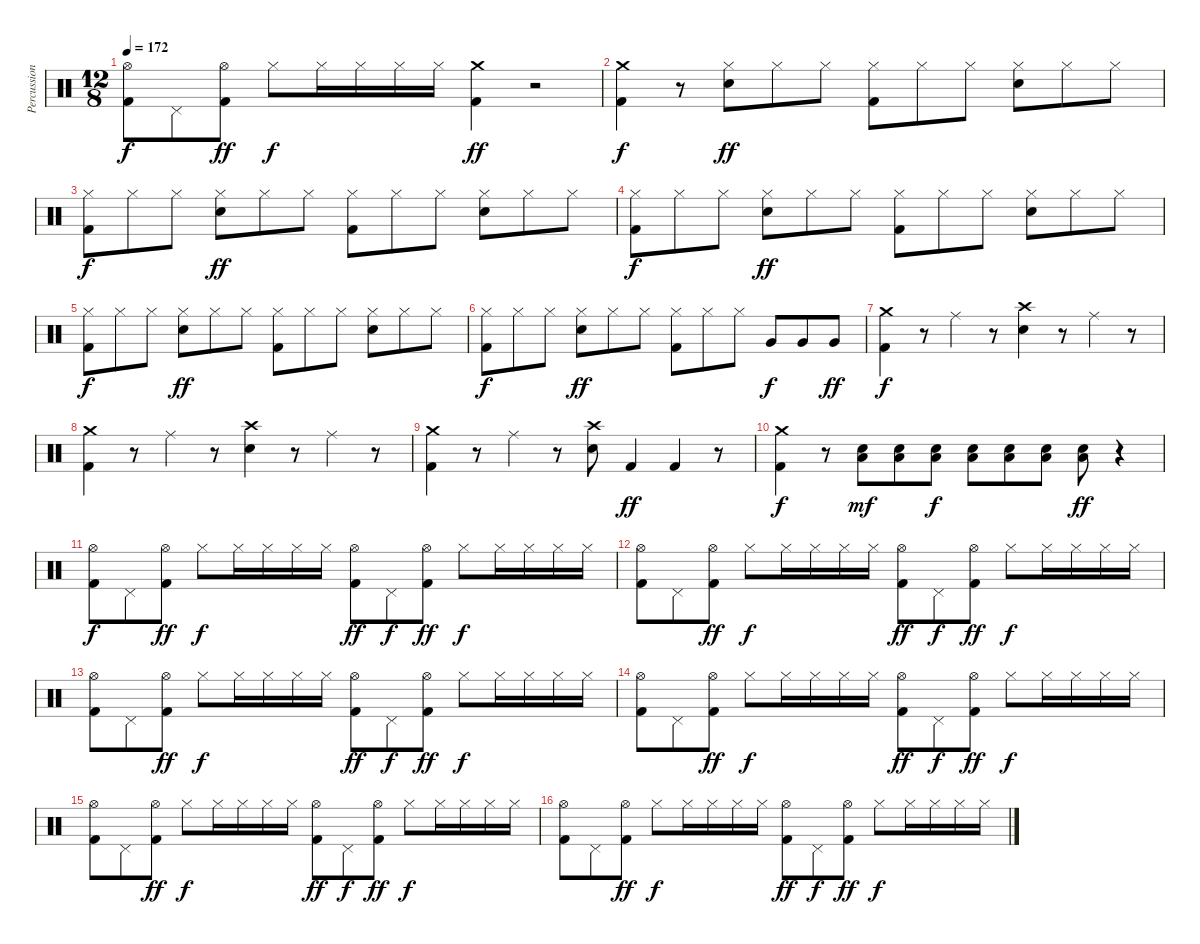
\track ("Percussion" "Percussion") {instrument percussion}
\staff {score}
\articulation defaults
\ts (12 8)
\tempo 172
\clef neutral
\ks c
("Kick (hit) 2" "Hi-Hat (open)").8{dy f} "Pedal Hi-Hat (hit)".8 ("Kick (hit) 2" "Hi-Hat (open)").8{dy ff} "Hi-Hat (closed)".8{dy f} "Hi-Hat (closed)".16 "Hi-Hat (closed)".16 "Hi-Hat (closed)".16 "Hi-Hat (closed)".16 ("Kick (hit) 2" "Crash medium (hit)").4{dy ff} r.2 |
("Kick (hit) 2" "Crash medium (hit)").4{dy f} r.8 ("Snare (hit) 2" "Hi-Hat (closed)").8{dy ff} "Hi-Hat (closed)".8 "Hi-Hat (closed)".8 ("Kick (hit) 2" "Hi-Hat (closed)").8 "Hi-Hat (closed)".8 "Hi-Hat (closed)".8 ("Snare (hit) 2" "Hi-Hat (closed)").8 "Hi-Hat (closed)".8 "Hi-Hat (closed)".8 |
("Kick (hit) 2" "Hi-Hat (closed)").8{dy f} "Hi-Hat (closed)".8 "Hi-Hat (closed)".8 ("Snare (hit) 2" "Hi-Hat (closed)").8{dy ff} "Hi-Hat (closed)".8 "Hi-Hat (closed)".8 ("Kick (hit) 2" "Hi-Hat (closed)").8 "Hi-Hat (closed)".8 "Hi-Hat (closed)".8 ("Snare (hit) 2" "Hi-Hat (closed)").8 "Hi-Hat (closed)".8 "Hi-Hat (closed)".8 |
("Kick (hit) 2" "Hi-Hat (closed)").8{dy f} "Hi-Hat (closed)".8 "Hi-Hat (closed)".8 ("Snare (hit) 2" "Hi-Hat (closed)").8{dy ff} "Hi-Hat (closed)".8 "Hi-Hat (closed)".8 ("Kick (hit) 2" "Hi-Hat (closed)").8 "Hi-Hat (closed)".8 "Hi-Hat (closed)".8 ("Snare (hit) 2" "Hi-Hat (closed)").8 "Hi-Hat (closed)".8 "Hi-Hat (closed)".8 |
("Kick (hit) 2" "Hi-Hat (closed)").8{dy f} "Hi-Hat (closed)".8 "Hi-Hat (closed)".8 ("Snare (hit) 2" "Hi-Hat (closed)").8{dy ff} "Hi-Hat (closed)".8 "Hi-Hat (closed)".8 ("Kick (hit) 2" "Hi-Hat (closed)").8 "Hi-Hat (closed)".8 "Hi-Hat (closed)".8 ("Snare (hit) 2" "Hi-Hat (closed)").8 "Hi-Hat (closed)".8 "Hi-Hat (closed)".8 |
("Kick (hit) 2" "Hi-Hat (closed)").8{dy f} "Hi-Hat (closed)".8 "Hi-Hat (closed)".8 ("Snare (hit) 2" "Hi-Hat (closed)").8{dy ff} "Hi-Hat (closed)".8 "Hi-Hat (closed)".8 ("Kick (hit) 2" "Hi-Hat (closed)").8 "Hi-Hat (closed)".8 "Hi-Hat (closed)".8 "Very Low Tom (hit)".8{dy f} "Very Low Tom (hit)".8 "Very Low Tom (hit)".8{dy ff} |
("Kick (hit) 2" "Crash medium (hit)").4{dy f} r.8 "Ride (middle)".4 r.8 ("Snare (hit) 2" "Crash high (hit)").4 r.8 "Ride (middle)".4 r.8 |
("Kick (hit) 2" "Crash medium (hit)").4 r.8 "Ride (middle)".4 r.8 ("Snare (hit) 2" "Crash high (hit)").4 r.8 "Ride (middle)".4 r.8 |
("Kick (hit) 2" "Crash medium (hit)").4 r.8 "Ride (middle)".4 r.8 ("Snare (hit) 2" "Crash high (hit)").8 "Kick (hit) 2".4{dy ff} "Kick (hit) 2".4 r.8 |
("Kick (hit) 2" "Crash medium (hit)").4{dy f} r.8 ("Snare (hit) 2" "Low Floor Tom (hit)").8{dy mf} ("Snare (hit) 2" "Low Floor Tom (hit)").8 ("Snare (hit) 2" "Low Floor Tom (hit)").8{dy f} ("Snare (hit) 2" "Low Floor Tom (hit)").8 ("Snare (hit) 2" "Low Floor Tom (hit)").8 ("Snare (hit) 2" "Low Floor Tom (hit)").8 ("Snare (hit) 2" "Low Floor Tom (hit)").8{dy ff} r.4 |
("Kick (hit) 2" "Hi-Hat (open)").8{dy f} "Pedal Hi-Hat (hit)".8 ("Kick (hit) 2" "Hi-Hat (open)").8{dy ff} "Hi-Hat (closed)".8{dy f} "Hi-Hat (closed)".16 "Hi-Hat (closed)".16 "Hi-Hat (closed)".16 "Hi-Hat (closed)".16 ("Kick (hit) 2" "Hi-Hat (open)").8{dy ff} "Pedal Hi-Hat (hit)".8{dy f} ("Kick (hit) 2" "Hi-Hat (open)").8{dy ff} "Hi-Hat (closed)".8{dy f} "Hi-Hat (closed)".16 "Hi-Hat (closed)".16 "Hi-Hat (closed)".16 "Hi-Hat (closed)".16 |
("Kick (hit) 2" "Hi-Hat (open)").8 "Pedal Hi-Hat (hit)".8 ("Kick (hit) 2" "Hi-Hat (open)").8{dy ff} "Hi-Hat (closed)".8{dy f} "Hi-Hat (closed)".16 "Hi-Hat (closed)".16 "Hi-Hat (closed)".16 "Hi-Hat (closed)".16 ("Kick (hit) 2" "Hi-Hat (open)").8{dy ff} "Pedal Hi-Hat (hit)".8{dy f} ("Kick (hit) 2" "Hi-Hat (open)").8{dy ff} "Hi-Hat (closed)".8{dy f} "Hi-Hat (closed)".16 "Hi-Hat (closed)".16 "Hi-Hat (closed)".16 "Hi-Hat (closed)".16 |
("Kick (hit) 2" "Hi-Hat (open)").8 "Pedal Hi-Hat (hit)".8 ("Kick (hit) 2" "Hi-Hat (open)").8{dy ff} "Hi-Hat (closed)".8{dy f} "Hi-Hat (closed)".16 "Hi-Hat (closed)".16 "Hi-Hat (closed)".16 "Hi-Hat (closed)".16 ("Kick (hit) 2" "Hi-Hat (open)").8{dy ff} "Pedal Hi-Hat (hit)".8{dy f} ("Kick (hit) 2" "Hi-Hat (open)").8{dy ff} "Hi-Hat (closed)".8{dy f} "Hi-Hat (closed)".16 "Hi-Hat (closed)".16 "Hi-Hat (closed)".16 "Hi-Hat (closed)".16 |
("Kick (hit) 2" "Hi-Hat (open)").8 "Pedal Hi-Hat (hit)".8 ("Kick (hit) 2" "Hi-Hat (open)").8{dy ff} "Hi-Hat (closed)".8{dy f} "Hi-Hat (closed)".16 "Hi-Hat (closed)".16 "Hi-Hat (closed)".16 "Hi-Hat (closed)".16 ("Kick (hit) 2" "Hi-Hat (open)").8{dy ff} "Pedal Hi-Hat (hit)".8{dy f} ("Kick (hit) 2" "Hi-Hat (open)").8{dy ff} "Hi-Hat (closed)".8{dy f} "Hi-Hat (closed)".16 "Hi-Hat (closed)".16 "Hi-Hat (closed)".16 "Hi-Hat (closed)".16 |
("Kick (hit) 2" "Hi-Hat (open)").8 "Pedal Hi-Hat (hit)".8 ("Kick (hit) 2" "Hi-Hat (open)").8{dy ff} "Hi-Hat (closed)".8{dy f} "Hi-Hat (closed)".16 "Hi-Hat (closed)".16 "Hi-Hat (closed)".16 "Hi-Hat (closed)".16 ("Kick (hit) 2" "Hi-Hat (open)").8{dy ff} "Pedal Hi-Hat (hit)".8{dy f} ("Kick (hit) 2" "Hi-Hat (open)").8{dy ff} "Hi-Hat (closed)".8{dy f} "Hi-Hat (closed)".16 "Hi-Hat (closed)".16 "Hi-Hat (closed)".16 "Hi-Hat (closed)".16 |
("Kick (hit) 2" "Hi-Hat (open)").8 "Pedal Hi-Hat (hit)".8 ("Kick (hit) 2" "Hi-Hat (open)").8{dy ff} "Hi-Hat (closed)".8{dy f} "Hi-Hat (closed)".16 "Hi-Hat (closed)".16 "Hi-Hat (closed)".16 "Hi-Hat (closed)".16 ("Kick (hit) 2" "Hi-Hat (open)").8{dy ff} "Pedal Hi-Hat (hit)".8{dy f} ("Kick (hit) 2" "Hi-Hat (open)").8{dy ff} "Hi-Hat (closed)".8{dy f} "Hi-Hat (closed)".16 "Hi-Hat (closed)".16 "Hi-Hat (closed)".16 "Hi-Hat (closed)".16
